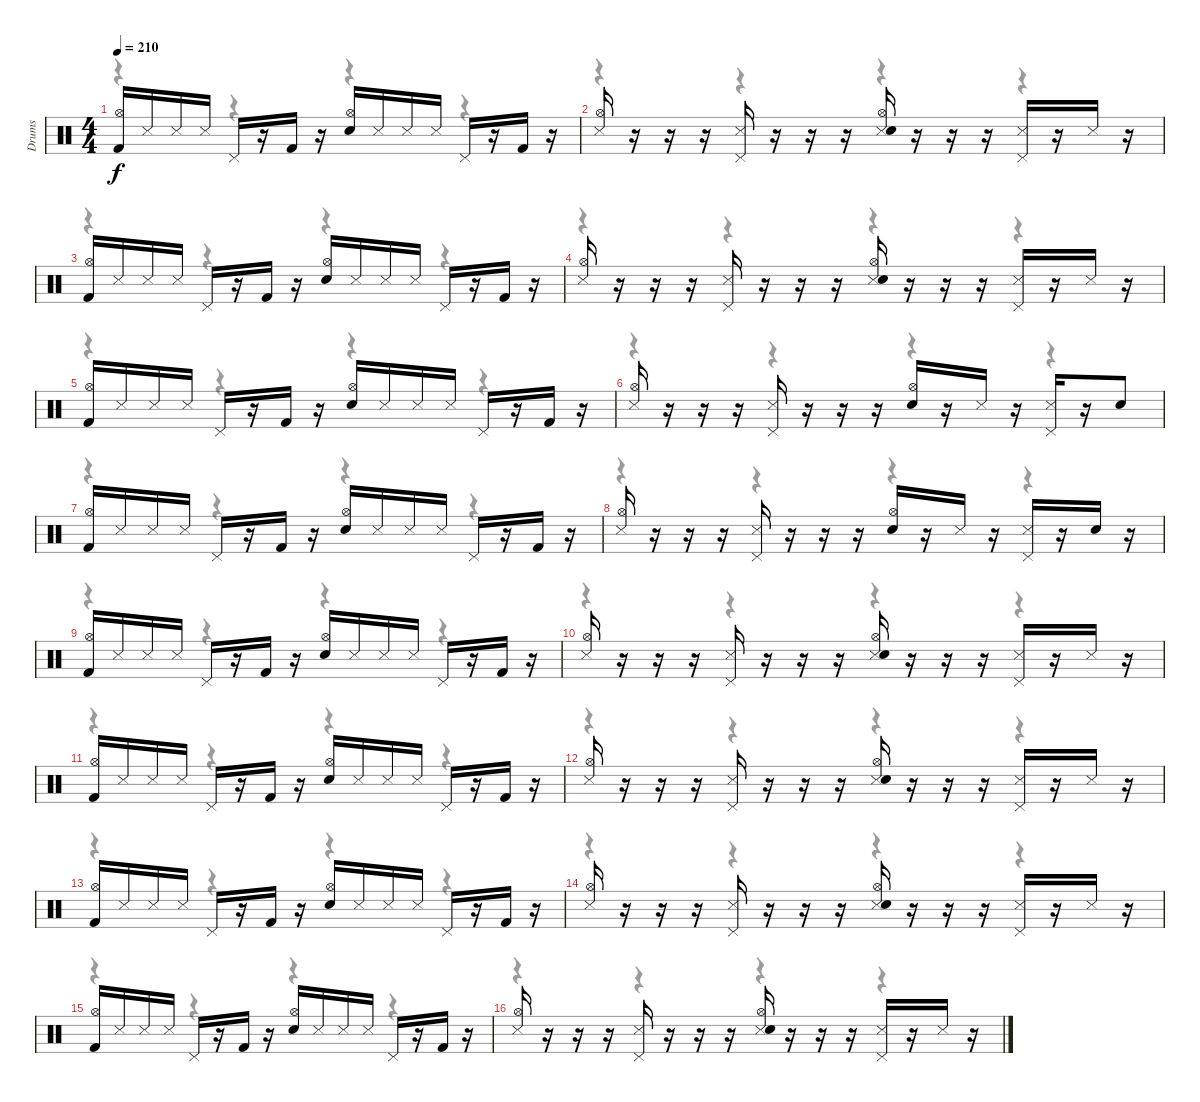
\track ("Drums" "Drums") {instrument percussion}
\staff {score}
\articulation defaults
\voice
\ts (4 4)
\tempo 210
\clef neutral
\ks c
("Kick (hit) 2" "Hi-Hat (open)").16{dy f} "Snare (side stick) 3".16 "Snare (side stick) 3".16 "Snare (side stick) 3".16 "Pedal Hi-Hat (hit)".16 r.16 "Kick (hit) 2".16 r.16 ("Snare (hit) 2" "Hi-Hat (open)").16 "Snare (side stick) 3".16 "Snare (side stick) 3".16 "Snare (side stick) 3".16 "Pedal Hi-Hat (hit)".16 r.16 "Kick (hit) 2".16 r.16 |
("Snare (side stick) 3" "Hi-Hat (open)").16 r.16 r.16 r.16 ("Snare (side stick) 3" "Pedal Hi-Hat (hit)").16 r.16 r.16 r.16 ("Snare (side stick) 3" "Snare (hit) 2" "Hi-Hat (open)").16 r.16 r.16 r.16 ("Snare (side stick) 3" "Pedal Hi-Hat (hit)").16 r.16 "Snare (side stick) 3".16 r.16 |
("Kick (hit) 2" "Hi-Hat (open)").16 "Snare (side stick) 3".16 "Snare (side stick) 3".16 "Snare (side stick) 3".16 "Pedal Hi-Hat (hit)".16 r.16 "Kick (hit) 2".16 r.16 ("Snare (hit) 2" "Hi-Hat (open)").16 "Snare (side stick) 3".16 "Snare (side stick) 3".16 "Snare (side stick) 3".16 "Pedal Hi-Hat (hit)".16 r.16 "Kick (hit) 2".16 r.16 |
("Snare (side stick) 3" "Hi-Hat (open)").16 r.16 r.16 r.16 ("Snare (side stick) 3" "Pedal Hi-Hat (hit)").16 r.16 r.16 r.16 ("Snare (side stick) 3" "Snare (hit) 2" "Hi-Hat (open)").16 r.16 r.16 r.16 ("Snare (side stick) 3" "Pedal Hi-Hat (hit)").16 r.16 "Snare (side stick) 3".16 r.16 |
("Kick (hit) 2" "Hi-Hat (open)").16 "Snare (side stick) 3".16 "Snare (side stick) 3".16 "Snare (side stick) 3".16 "Pedal Hi-Hat (hit)".16 r.16 "Kick (hit) 2".16 r.16 ("Snare (hit) 2" "Hi-Hat (open)").16 "Snare (side stick) 3".16 "Snare (side stick) 3".16 "Snare (side stick) 3".16 "Pedal Hi-Hat (hit)".16 r.16 "Kick (hit) 2".16 r.16 |
("Snare (side stick) 3" "Hi-Hat (open)").16 r.16 r.16 r.16 ("Snare (side stick) 3" "Pedal Hi-Hat (hit)").16 r.16 r.16 r.16 ("Snare (hit) 2" "Hi-Hat (open)").16 r.16 "Snare (side stick) 3".16 r.16 ("Snare (side stick) 3" "Pedal Hi-Hat (hit)").16 r.16 "Snare (hit) 2".8 |
("Kick (hit) 2" "Hi-Hat (open)").16 "Snare (side stick) 3".16 "Snare (side stick) 3".16 "Snare (side stick) 3".16 "Pedal Hi-Hat (hit)".16 r.16 "Kick (hit) 2".16 r.16 ("Snare (hit) 2" "Hi-Hat (open)").16 "Snare (side stick) 3".16 "Snare (side stick) 3".16 "Snare (side stick) 3".16 "Pedal Hi-Hat (hit)".16 r.16 "Kick (hit) 2".16 r.16 |
("Snare (side stick) 3" "Hi-Hat (open)").16 r.16 r.16 r.16 ("Snare (side stick) 3" "Pedal Hi-Hat (hit)").16 r.16 r.16 r.16 ("Snare (hit) 2" "Hi-Hat (open)").16 r.16 "Snare (side stick) 3".16 r.16 ("Snare (side stick) 3" "Pedal Hi-Hat (hit)").16 r.16 "Snare (hit) 2".16 r.16 |
("Kick (hit) 2" "Hi-Hat (open)").16 "Snare (side stick) 3".16 "Snare (side stick) 3".16 "Snare (side stick) 3".16 "Pedal Hi-Hat (hit)".16 r.16 "Kick (hit) 2".16 r.16 ("Snare (hit) 2" "Hi-Hat (open)").16 "Snare (side stick) 3".16 "Snare (side stick) 3".16 "Snare (side stick) 3".16 "Pedal Hi-Hat (hit)".16 r.16 "Kick (hit) 2".16 r.16 |
("Snare (side stick) 3" "Hi-Hat (open)").16 r.16 r.16 r.16 ("Snare (side stick) 3" "Pedal Hi-Hat (hit)").16 r.16 r.16 r.16 ("Snare (side stick) 3" "Snare (hit) 2" "Hi-Hat (open)").16 r.16 r.16 r.16 ("Snare (side stick) 3" "Pedal Hi-Hat (hit)").16 r.16 "Snare (side stick) 3".16 r.16 |
("Kick (hit) 2" "Hi-Hat (open)").16 "Snare (side stick) 3".16 "Snare (side stick) 3".16 "Snare (side stick) 3".16 "Pedal Hi-Hat (hit)".16 r.16 "Kick (hit) 2".16 r.16 ("Snare (hit) 2" "Hi-Hat (open)").16 "Snare (side stick) 3".16 "Snare (side stick) 3".16 "Snare (side stick) 3".16 "Pedal Hi-Hat (hit)".16 r.16 "Kick (hit) 2".16 r.16 |
("Snare (side stick) 3" "Hi-Hat (open)").16 r.16 r.16 r.16 ("Snare (side stick) 3" "Pedal Hi-Hat (hit)").16 r.16 r.16 r.16 ("Snare (side stick) 3" "Snare (hit) 2" "Hi-Hat (open)").16 r.16 r.16 r.16 ("Snare (side stick) 3" "Pedal Hi-Hat (hit)").16 r.16 "Snare (side stick) 3".16 r.16 |
("Kick (hit) 2" "Hi-Hat (open)").16 "Snare (side stick) 3".16 "Snare (side stick) 3".16 "Snare (side stick) 3".16 "Pedal Hi-Hat (hit)".16 r.16 "Kick (hit) 2".16 r.16 ("Snare (hit) 2" "Hi-Hat (open)").16 "Snare (side stick) 3".16 "Snare (side stick) 3".16 "Snare (side stick) 3".16 "Pedal Hi-Hat (hit)".16 r.16 "Kick (hit) 2".16 r.16 |
("Snare (side stick) 3" "Hi-Hat (open)").16 r.16 r.16 r.16 ("Snare (side stick) 3" "Pedal Hi-Hat (hit)").16 r.16 r.16 r.16 ("Snare (side stick) 3" "Snare (hit) 2" "Hi-Hat (open)").16 r.16 r.16 r.16 ("Snare (side stick) 3" "Pedal Hi-Hat (hit)").16 r.16 "Snare (side stick) 3".16 r.16 |
("Kick (hit) 2" "Hi-Hat (open)").16 "Snare (side stick) 3".16 "Snare (side stick) 3".16 "Snare (side stick) 3".16 "Pedal Hi-Hat (hit)".16 r.16 "Kick (hit) 2".16 r.16 ("Snare (hit) 2" "Hi-Hat (open)").16 "Snare (side stick) 3".16 "Snare (side stick) 3".16 "Snare (side stick) 3".16 "Pedal Hi-Hat (hit)".16 r.16 "Kick (hit) 2".16 r.16 |
("Snare (side stick) 3" "Hi-Hat (open)").16 r.16 r.16 r.16 ("Snare (side stick) 3" "Pedal Hi-Hat (hit)").16 r.16 r.16 r.16 ("Snare (side stick) 3" "Snare (hit) 2" "Hi-Hat (open)").16 r.16 r.16 r.16 ("Snare (side stick) 3" "Pedal Hi-Hat (hit)").16 r.16 "Snare (side stick) 3".16 r.16
\voice
\clef neutral
\ottava regular
\simile none
\ks c
r.4{dy mf} r.4 r.4 r.4 |
r.4 r.4 r.4 r.4 |
r.4 r.4 r.4 r.4 |
r.4 r.4 r.4 r.4 |
r.4 r.4 r.4 r.4 |
r.4 r.4 r.4 r.4 |
r.4 r.4 r.4 r.4 |
r.4 r.4 r.4 r.4 |
r.4 r.4 r.4 r.4 |
r.4 r.4 r.4 r.4 |
r.4 r.4 r.4 r.4 |
r.4 r.4 r.4 r.4 |
r.4 r.4 r.4 r.4 |
r.4 r.4 r.4 r.4 |
r.4 r.4 r.4 r.4 |
r.4 r.4 r.4 r.4
